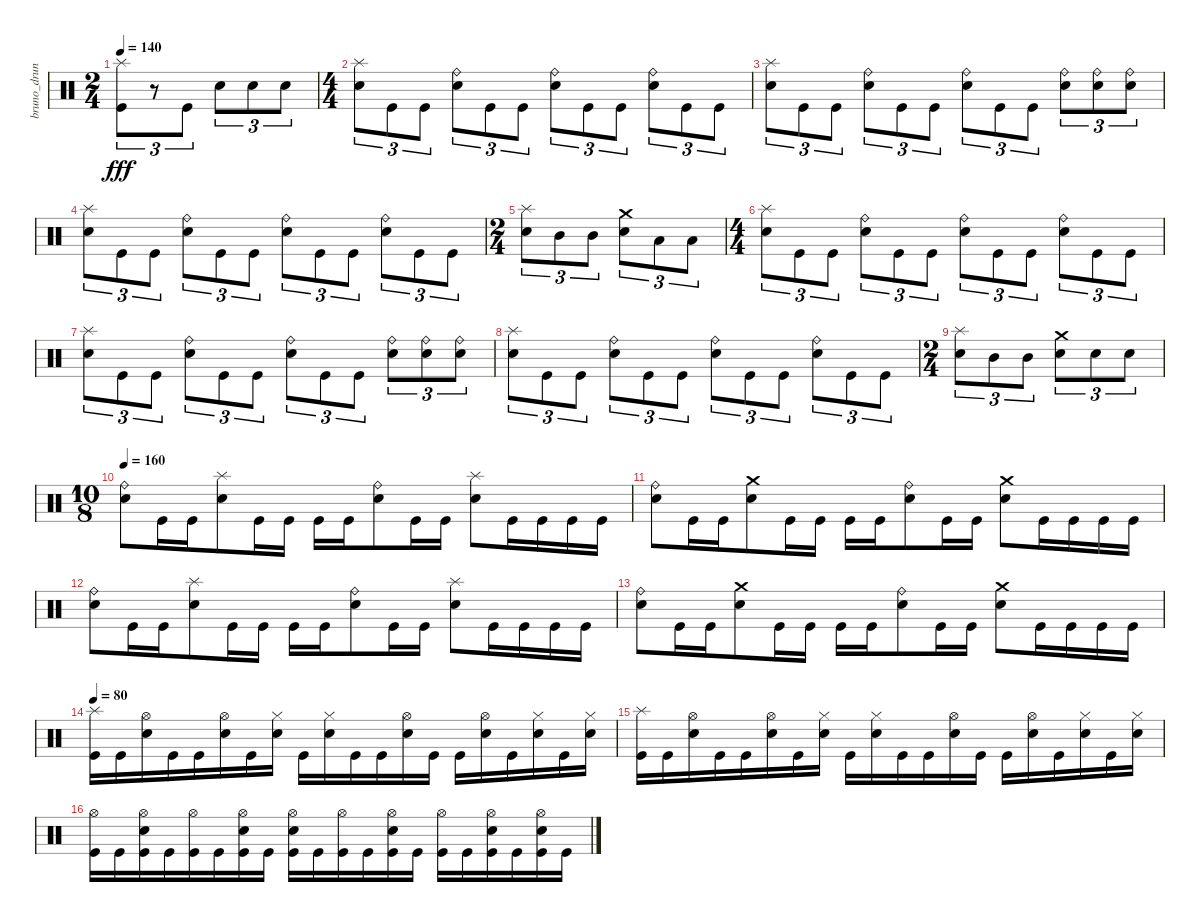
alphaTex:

\track ("bruno_druns" "bruno_drun") {instrument percussion}
\staff {score}
\articulation defaults
\ts (2 4)
\tempo 140
\clef neutral
\ks c
("Kick (hit)" "Splash (hit)").8{tu (3 2) dy fff} r.8{tu (3 2)} "Kick (hit)".8{tu (3 2)} "Electric Snare (hit)".8{tu (3 2)} "Electric Snare (hit)".8{tu (3 2)} "Electric Snare (hit)".8{tu (3 2)} |
\ts (4 4)
("Electric Snare (hit)" "Splash (hit)").8{tu (3 2)} "Kick (hit)".8{tu (3 2)} "Kick (hit)".8{tu (3 2)} ("Electric Snare (hit)" "Ride (bell)").8{tu (3 2)} "Kick (hit)".8{tu (3 2)} "Kick (hit)".8{tu (3 2)} ("Electric Snare (hit)" "Ride (bell)").8{tu (3 2)} "Kick (hit)".8{tu (3 2)} "Kick (hit)".8{tu (3 2)} ("Electric Snare (hit)" "Ride (bell)").8{tu (3 2)} "Kick (hit)".8{tu (3 2)} "Kick (hit)".8{tu (3 2)} |
("Electric Snare (hit)" "Splash (hit)").8{tu (3 2)} "Kick (hit)".8{tu (3 2)} "Kick (hit)".8{tu (3 2)} ("Electric Snare (hit)" "Ride (bell)").8{tu (3 2)} "Kick (hit)".8{tu (3 2)} "Kick (hit)".8{tu (3 2)} ("Electric Snare (hit)" "Ride (bell)").8{tu (3 2)} "Kick (hit)".8{tu (3 2)} "Kick (hit)".8{tu (3 2)} ("Electric Snare (hit)" "Ride (bell)").8{tu (3 2)} ("Electric Snare (hit)" "Ride (bell)").8{tu (3 2)} ("Electric Snare (hit)" "Ride (bell)").8{tu (3 2)} |
("Electric Snare (hit)" "Splash (hit)").8{tu (3 2)} "Kick (hit)".8{tu (3 2)} "Kick (hit)".8{tu (3 2)} ("Electric Snare (hit)" "Ride (bell)").8{tu (3 2)} "Kick (hit)".8{tu (3 2)} "Kick (hit)".8{tu (3 2)} ("Electric Snare (hit)" "Ride (bell)").8{tu (3 2)} "Kick (hit)".8{tu (3 2)} "Kick (hit)".8{tu (3 2)} ("Electric Snare (hit)" "Ride (bell)").8{tu (3 2)} "Kick (hit)".8{tu (3 2)} "Kick (hit)".8{tu (3 2)} |
\ts (2 4)
("Electric Snare (hit)" "Splash (hit)").8{tu (3 2)} "Mid Tom (hit)".8{tu (3 2)} "Mid Tom (hit)".8{tu (3 2)} ("Electric Snare (hit)" "Crash medium (hit)").8{tu (3 2)} "Low Tom (hit)".8{tu (3 2)} "Low Tom (hit)".8{tu (3 2)} |
\ts (4 4)
("Electric Snare (hit)" "Splash (hit)").8{tu (3 2)} "Kick (hit)".8{tu (3 2)} "Kick (hit)".8{tu (3 2)} ("Electric Snare (hit)" "Ride (bell)").8{tu (3 2)} "Kick (hit)".8{tu (3 2)} "Kick (hit)".8{tu (3 2)} ("Electric Snare (hit)" "Ride (bell)").8{tu (3 2)} "Kick (hit)".8{tu (3 2)} "Kick (hit)".8{tu (3 2)} ("Electric Snare (hit)" "Ride (bell)").8{tu (3 2)} "Kick (hit)".8{tu (3 2)} "Kick (hit)".8{tu (3 2)} |
("Electric Snare (hit)" "Splash (hit)").8{tu (3 2)} "Kick (hit)".8{tu (3 2)} "Kick (hit)".8{tu (3 2)} ("Electric Snare (hit)" "Ride (bell)").8{tu (3 2)} "Kick (hit)".8{tu (3 2)} "Kick (hit)".8{tu (3 2)} ("Electric Snare (hit)" "Ride (bell)").8{tu (3 2)} "Kick (hit)".8{tu (3 2)} "Kick (hit)".8{tu (3 2)} ("Electric Snare (hit)" "Ride (bell)").8{tu (3 2)} ("Electric Snare (hit)" "Ride (bell)").8{tu (3 2)} ("Electric Snare (hit)" "Ride (bell)").8{tu (3 2)} |
("Electric Snare (hit)" "Splash (hit)").8{tu (3 2)} "Kick (hit)".8{tu (3 2)} "Kick (hit)".8{tu (3 2)} ("Electric Snare (hit)" "Ride (bell)").8{tu (3 2)} "Kick (hit)".8{tu (3 2)} "Kick (hit)".8{tu (3 2)} ("Electric Snare (hit)" "Ride (bell)").8{tu (3 2)} "Kick (hit)".8{tu (3 2)} "Kick (hit)".8{tu (3 2)} ("Electric Snare (hit)" "Ride (bell)").8{tu (3 2)} "Kick (hit)".8{tu (3 2)} "Kick (hit)".8{tu (3 2)} |
\ts (2 4)
("Electric Snare (hit)" "Splash (hit)").8{tu (3 2)} "Mid Tom (hit)".8{tu (3 2)} "Mid Tom (hit)".8{tu (3 2)} ("Electric Snare (hit)" "Crash medium (hit)").8{tu (3 2)} "Electric Snare (hit)".8{tu (3 2)} "Electric Snare (hit)".8{tu (3 2)} |
\ts (10 8)
\tempo 160
("Electric Snare (hit)" "Ride (bell)").8 "Kick (hit)".16 "Kick (hit)".16 ("Electric Snare (hit)" "Splash (hit)").8 "Kick (hit)".16 "Kick (hit)".16 "Kick (hit)".16 "Kick (hit)".16 ("Electric Snare (hit)" "Ride (bell)").8 "Kick (hit)".16 "Kick (hit)".16 ("Electric Snare (hit)" "Splash (hit)").8 "Kick (hit)".16 "Kick (hit)".16 "Kick (hit)".16 "Kick (hit)".16 |
("Electric Snare (hit)" "Ride (bell)").8 "Kick (hit)".16 "Kick (hit)".16 ("Electric Snare (hit)" "Crash medium (hit)").8 "Kick (hit)".16 "Kick (hit)".16 "Kick (hit)".16 "Kick (hit)".16 ("Electric Snare (hit)" "Ride (bell)").8 "Kick (hit)".16 "Kick (hit)".16 ("Electric Snare (hit)" "Crash medium (hit)").8 "Kick (hit)".16 "Kick (hit)".16 "Kick (hit)".16 "Kick (hit)".16 |
("Electric Snare (hit)" "Ride (bell)").8 "Kick (hit)".16 "Kick (hit)".16 ("Electric Snare (hit)" "Splash (hit)").8 "Kick (hit)".16 "Kick (hit)".16 "Kick (hit)".16 "Kick (hit)".16 ("Electric Snare (hit)" "Ride (bell)").8 "Kick (hit)".16 "Kick (hit)".16 ("Electric Snare (hit)" "Splash (hit)").8 "Kick (hit)".16 "Kick (hit)".16 "Kick (hit)".16 "Kick (hit)".16 |
("Electric Snare (hit)" "Ride (bell)").8 "Kick (hit)".16 "Kick (hit)".16 ("Electric Snare (hit)" "Crash medium (hit)").8 "Kick (hit)".16 "Kick (hit)".16 "Kick (hit)".16 "Kick (hit)".16 ("Electric Snare (hit)" "Ride (bell)").8 "Kick (hit)".16 "Kick (hit)".16 ("Electric Snare (hit)" "Crash medium (hit)").8 "Kick (hit)".16 "Kick (hit)".16 "Kick (hit)".16 "Kick (hit)".16 |
\tempo 80
("Kick (hit)" "Splash (hit)").16 "Kick (hit)".16 ("Electric Snare (hit)" "Hi-Hat (open)").16 "Kick (hit)".16 "Kick (hit)".16 ("Electric Snare (hit)" "Hi-Hat (open)").16 "Kick (hit)".16 ("Electric Snare (hit)" "Hi-Hat (closed)").16 "Kick (hit)".16 ("Electric Snare (hit)" "Hi-Hat (closed)").16 "Kick (hit)".16 "Kick (hit)".16 ("Electric Snare (hit)" "Hi-Hat (open)").16 "Kick (hit)".16 "Kick (hit)".16 ("Electric Snare (hit)" "Hi-Hat (open)").16 "Kick (hit)".16 ("Electric Snare (hit)" "Hi-Hat (closed)").16 "Kick (hit)".16 ("Electric Snare (hit)" "Hi-Hat (closed)").16 |
("Kick (hit)" "Splash (hit)").16 "Kick (hit)".16 ("Electric Snare (hit)" "Hi-Hat (open)").16 "Kick (hit)".16 "Kick (hit)".16 ("Electric Snare (hit)" "Hi-Hat (open)").16 "Kick (hit)".16 ("Electric Snare (hit)" "Hi-Hat (closed)").16 "Kick (hit)".16 ("Electric Snare (hit)" "Hi-Hat (closed)").16 "Kick (hit)".16 "Kick (hit)".16 ("Electric Snare (hit)" "Hi-Hat (open)").16 "Kick (hit)".16 "Kick (hit)".16 ("Electric Snare (hit)" "Hi-Hat (open)").16 "Kick (hit)".16 ("Electric Snare (hit)" "Hi-Hat (closed)").16 "Kick (hit)".16 ("Electric Snare (hit)" "Hi-Hat (closed)").16 |
("Kick (hit)" "Hi-Hat (open)").16 "Kick (hit)".16 ("Kick (hit)" "Electric Snare (hit)" "Hi-Hat (open)").16 "Kick (hit)".16 ("Kick (hit)" "Hi-Hat (open)").16 "Kick (hit)".16 ("Kick (hit)" "Electric Snare (hit)" "Hi-Hat (open)").16 "Kick (hit)".16 ("Kick (hit)" "Electric Snare (hit)" "Hi-Hat (open)").16 "Kick (hit)".16 ("Kick (hit)" "Hi-Hat (open)").16 "Kick (hit)".16 ("Kick (hit)" "Electric Snare (hit)" "Hi-Hat (open)").16 "Kick (hit)".16 ("Kick (hit)" "Hi-Hat (open)").16 "Kick (hit)".16 ("Kick (hit)" "Electric Snare (hit)" "Hi-Hat (open)").16 "Kick (hit)".16 ("Kick (hit)" "Electric Snare (hit)" "Hi-Hat (open)").16 "Kick (hit)".16
